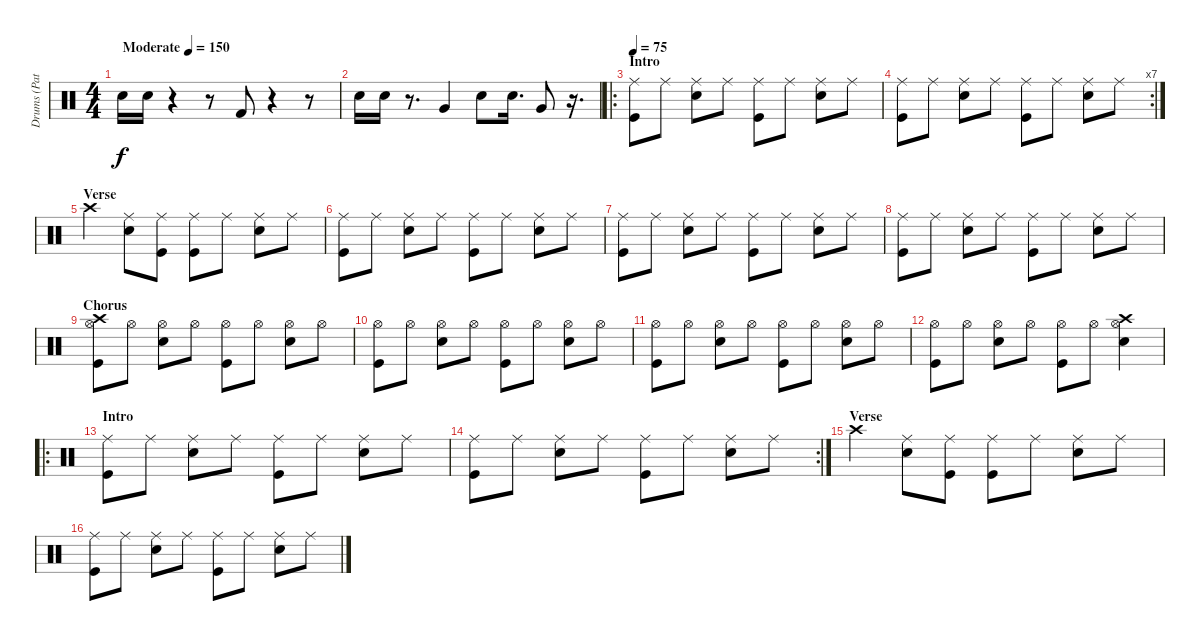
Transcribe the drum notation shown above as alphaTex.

\track ("Drums (Patrick Wilson)" "Drums (Pat") {instrument percussion}
\staff {score}
\articulation defaults
\ts (4 4)
\tempo (150 "Moderate")
\clef neutral
\ks c "Electric Snare (hit)".16{dy f} "Electric Snare (hit)".16
r.4 r.8 "Kick (hit) 2".8 r.4 r.8 |
"Electric Snare (hit)".16 "Electric Snare (hit)".16 r.8{d} "Very Low Tom (hit)".4 "Electric Snare (hit)".8 "Electric Snare (hit)".16{d} "Very Low Tom (hit)".8 r.16{d} |
\ro
\section ("" "Intro")
\tempo 75
("Ride (middle)" "Kick (hit)").8 "Ride (middle)".8 ("Ride (middle)" "Electric Snare (hit)").8 "Ride (middle)".8 ("Ride (middle)" "Kick (hit)").8 "Ride (middle)".8 ("Ride (middle)" "Electric Snare (hit)").8 "Ride (middle)".8 |
\rc 7
("Ride (middle)" "Kick (hit)").8 "Ride (middle)".8 ("Ride (middle)" "Electric Snare (hit)").8 "Ride (middle)".8 ("Ride (middle)" "Kick (hit)").8 "Ride (middle)".8 ("Ride (middle)" "Electric Snare (hit)").8 "Ride (middle)".8 |
\section ("" "Verse")
"Crash high (hit)".4 ("Ride (middle)" "Electric Snare (hit)").8 ("Ride (middle)" "Kick (hit)").8 ("Ride (middle)" "Kick (hit)").8 "Ride (middle)".8 ("Ride (middle)" "Electric Snare (hit)").8 "Ride (middle)".8 |
("Ride (middle)" "Kick (hit)").8 "Ride (middle)".8 ("Ride (middle)" "Electric Snare (hit)").8 "Ride (middle)".8 ("Ride (middle)" "Kick (hit)").8 "Ride (middle)".8 ("Ride (middle)" "Electric Snare (hit)").8 "Ride (middle)".8 |
("Ride (middle)" "Kick (hit)").8 "Ride (middle)".8 ("Ride (middle)" "Electric Snare (hit)").8 "Ride (middle)".8 ("Ride (middle)" "Kick (hit)").8 "Ride (middle)".8 ("Ride (middle)" "Electric Snare (hit)").8 "Ride (middle)".8 |
("Ride (middle)" "Kick (hit)").8 "Ride (middle)".8 ("Ride (middle)" "Electric Snare (hit)").8 "Ride (middle)".8 ("Ride (middle)" "Kick (hit)").8 "Ride (middle)".8 ("Ride (middle)" "Electric Snare (hit)").8 "Ride (middle)".8 |
\section ("" "Chorus")
("Crash high (hit)" "Hi-Hat (open)" "Kick (hit)").8 "Hi-Hat (open)".8 ("Hi-Hat (open)" "Electric Snare (hit)").8 "Hi-Hat (open)".8 ("Hi-Hat (open)" "Kick (hit)").8 "Hi-Hat (open)".8 ("Hi-Hat (open)" "Electric Snare (hit)").8 "Hi-Hat (open)".8 |
("Hi-Hat (open)" "Kick (hit)").8 "Hi-Hat (open)".8 ("Hi-Hat (open)" "Electric Snare (hit)").8 "Hi-Hat (open)".8 ("Hi-Hat (open)" "Kick (hit)").8 "Hi-Hat (open)".8 ("Hi-Hat (open)" "Electric Snare (hit)").8 "Hi-Hat (open)".8 |
("Hi-Hat (open)" "Kick (hit)").8 "Hi-Hat (open)".8 ("Hi-Hat (open)" "Electric Snare (hit)").8 "Hi-Hat (open)".8 ("Hi-Hat (open)" "Kick (hit)").8 "Hi-Hat (open)".8 ("Hi-Hat (open)" "Electric Snare (hit)").8 "Hi-Hat (open)".8 |
("Hi-Hat (open)" "Kick (hit)").8 "Hi-Hat (open)".8 ("Hi-Hat (open)" "Electric Snare (hit)").8 "Hi-Hat (open)".8 ("Hi-Hat (open)" "Kick (hit)").8 "Hi-Hat (open)".8 ("Crash high (hit)" "Hi-Hat (open)" "Electric Snare (hit)").4 |
\ro
\section ("" "Intro")
("Ride (middle)" "Kick (hit)").8 "Ride (middle)".8 ("Ride (middle)" "Electric Snare (hit)").8 "Ride (middle)".8 ("Ride (middle)" "Kick (hit)").8 "Ride (middle)".8 ("Ride (middle)" "Electric Snare (hit)").8 "Ride (middle)".8 |
\rc 2
("Ride (middle)" "Kick (hit)").8 "Ride (middle)".8 ("Ride (middle)" "Electric Snare (hit)").8 "Ride (middle)".8 ("Ride (middle)" "Kick (hit)").8 "Ride (middle)".8 ("Ride (middle)" "Electric Snare (hit)").8 "Ride (middle)".8 |
\section ("" "Verse")
"Crash high (hit)".4 ("Ride (middle)" "Electric Snare (hit)").8 ("Ride (middle)" "Kick (hit)").8 ("Ride (middle)" "Kick (hit)").8 "Ride (middle)".8 ("Ride (middle)" "Electric Snare (hit)").8 "Ride (middle)".8 |
("Ride (middle)" "Kick (hit)").8 "Ride (middle)".8 ("Ride (middle)" "Electric Snare (hit)").8 "Ride (middle)".8 ("Ride (middle)" "Kick (hit)").8 "Ride (middle)".8 ("Ride (middle)" "Electric Snare (hit)").8 "Ride (middle)".8
